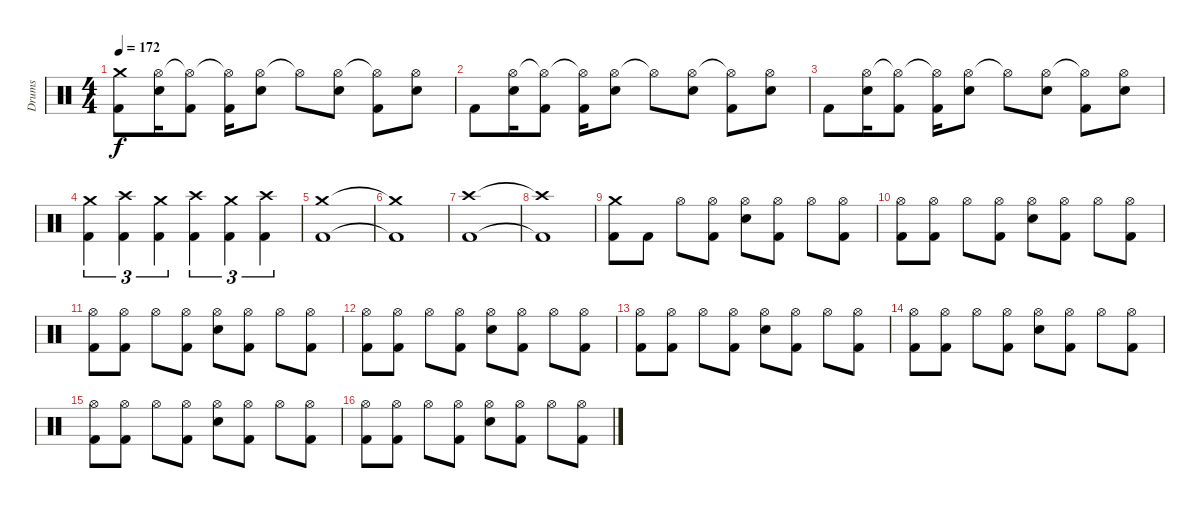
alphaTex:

\track ("Drums" "Drums") {instrument percussion}
\staff {score}
\articulation defaults
\ts (4 4)
\tempo 172
\clef neutral
\ks c
("Crash medium (hit)" "Kick (hit) 2").8{dy f} ("Hi-Hat (open)" "Electric Snare (hit)").16 ("Hi-Hat (open)"{t} "Kick (hit) 2").8 ("Hi-Hat (open)"{t} "Kick (hit) 2").16 ("Hi-Hat (open)" "Electric Snare (hit)").8 "Hi-Hat (open)"{t}.8 ("Hi-Hat (open)" "Electric Snare (hit)").8 ("Hi-Hat (open)"{t} "Kick (hit) 2").8 ("Hi-Hat (open)" "Electric Snare (hit)").8 |
"Kick (hit) 2".8 ("Hi-Hat (open)" "Electric Snare (hit)").16 ("Hi-Hat (open)"{t} "Kick (hit) 2").8 ("Hi-Hat (open)"{t} "Kick (hit) 2").16 ("Hi-Hat (open)" "Electric Snare (hit)").8 "Hi-Hat (open)"{t}.8 ("Hi-Hat (open)" "Electric Snare (hit)").8 ("Hi-Hat (open)"{t} "Kick (hit) 2").8 ("Hi-Hat (open)" "Electric Snare (hit)").8 |
"Kick (hit) 2".8 ("Hi-Hat (open)" "Electric Snare (hit)").16 ("Hi-Hat (open)"{t} "Kick (hit) 2").8 ("Hi-Hat (open)"{t} "Kick (hit) 2").16 ("Hi-Hat (open)" "Electric Snare (hit)").8 "Hi-Hat (open)"{t}.8 ("Hi-Hat (open)" "Electric Snare (hit)").8 ("Hi-Hat (open)"{t} "Kick (hit) 2").8 ("Hi-Hat (open)" "Electric Snare (hit)").8 |
("Crash medium (hit)" "Kick (hit) 2").4{tu (3 2)} ("Crash high (hit)" "Kick (hit) 2").4{tu (3 2)} ("Crash medium (hit)" "Kick (hit) 2").4{tu (3 2)} ("Crash high (hit)" "Kick (hit) 2").4{tu (3 2)} ("Crash medium (hit)" "Kick (hit) 2").4{tu (3 2)} ("Crash high (hit)" "Kick (hit) 2").4{tu (3 2)} |
("Crash medium (hit)" "Kick (hit) 2").1 |
("Crash medium (hit)"{t} "Kick (hit) 2"{t}).1 |
("Crash high (hit)" "Kick (hit) 2").1 |
("Crash high (hit)"{t} "Kick (hit) 2"{t}).1 |
("Crash medium (hit)" "Kick (hit) 2").8 "Kick (hit) 2".8 "Hi-Hat (open)".8 ("Hi-Hat (open)" "Kick (hit) 2").8 ("Hi-Hat (open)" "Electric Snare (hit)").8 ("Hi-Hat (open)" "Kick (hit) 2").8 "Hi-Hat (open)".8 ("Hi-Hat (open)" "Kick (hit) 2").8 |
("Hi-Hat (open)" "Kick (hit) 2").8 ("Hi-Hat (open)" "Kick (hit) 2").8 "Hi-Hat (open)".8 ("Hi-Hat (open)" "Kick (hit) 2").8 ("Hi-Hat (open)" "Electric Snare (hit)").8 ("Hi-Hat (open)" "Kick (hit) 2").8 "Hi-Hat (open)".8 ("Hi-Hat (open)" "Kick (hit) 2").8 |
("Hi-Hat (open)" "Kick (hit) 2").8 ("Hi-Hat (open)" "Kick (hit) 2").8 "Hi-Hat (open)".8 ("Hi-Hat (open)" "Kick (hit) 2").8 ("Hi-Hat (open)" "Electric Snare (hit)").8 ("Hi-Hat (open)" "Kick (hit) 2").8 "Hi-Hat (open)".8 ("Hi-Hat (open)" "Kick (hit) 2").8 |
("Hi-Hat (open)" "Kick (hit) 2").8 ("Hi-Hat (open)" "Kick (hit) 2").8 "Hi-Hat (open)".8 ("Hi-Hat (open)" "Kick (hit) 2").8 ("Hi-Hat (open)" "Electric Snare (hit)").8 ("Hi-Hat (open)" "Kick (hit) 2").8 "Hi-Hat (open)".8 ("Hi-Hat (open)" "Kick (hit) 2").8 |
("Hi-Hat (open)" "Kick (hit) 2").8 ("Hi-Hat (open)" "Kick (hit) 2").8 "Hi-Hat (open)".8 ("Hi-Hat (open)" "Kick (hit) 2").8 ("Hi-Hat (open)" "Electric Snare (hit)").8 ("Hi-Hat (open)" "Kick (hit) 2").8 "Hi-Hat (open)".8 ("Hi-Hat (open)" "Kick (hit) 2").8 |
("Hi-Hat (open)" "Kick (hit) 2").8 ("Hi-Hat (open)" "Kick (hit) 2").8 "Hi-Hat (open)".8 ("Hi-Hat (open)" "Kick (hit) 2").8 ("Hi-Hat (open)" "Electric Snare (hit)").8 ("Hi-Hat (open)" "Kick (hit) 2").8 "Hi-Hat (open)".8 ("Hi-Hat (open)" "Kick (hit) 2").8 |
("Hi-Hat (open)" "Kick (hit) 2").8 ("Hi-Hat (open)" "Kick (hit) 2").8 "Hi-Hat (open)".8 ("Hi-Hat (open)" "Kick (hit) 2").8 ("Hi-Hat (open)" "Electric Snare (hit)").8 ("Hi-Hat (open)" "Kick (hit) 2").8 "Hi-Hat (open)".8 ("Hi-Hat (open)" "Kick (hit) 2").8 |
("Hi-Hat (open)" "Kick (hit) 2").8 ("Hi-Hat (open)" "Kick (hit) 2").8 "Hi-Hat (open)".8 ("Hi-Hat (open)" "Kick (hit) 2").8 ("Hi-Hat (open)" "Electric Snare (hit)").8 ("Hi-Hat (open)" "Kick (hit) 2").8 "Hi-Hat (open)".8 ("Hi-Hat (open)" "Kick (hit) 2").8
